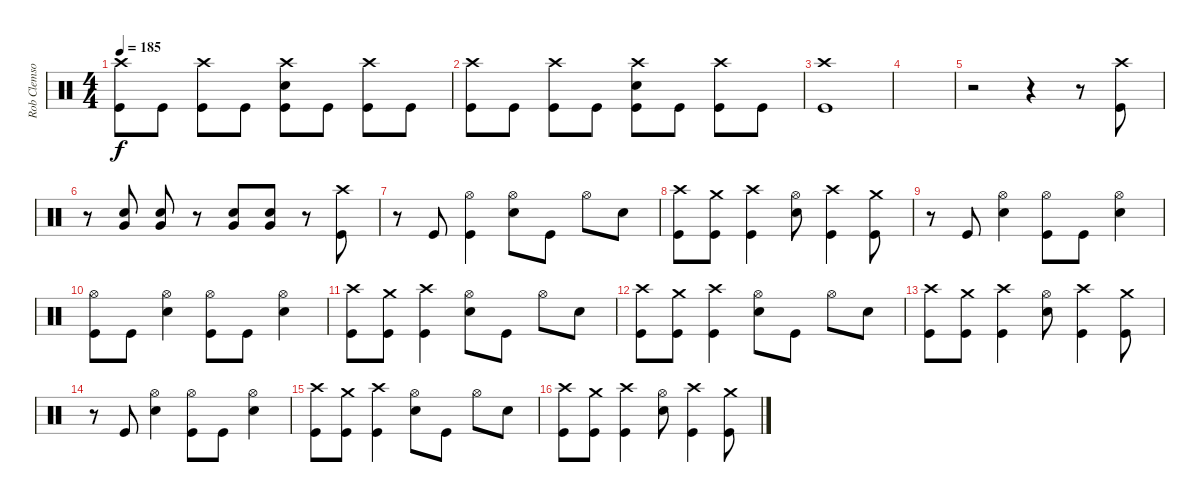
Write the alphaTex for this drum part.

\track ("Rob Clemson (Drums)" "Rob Clemso") {instrument percussion}
\staff {score}
\articulation defaults
\ts (4 4)
\tempo 185
\clef neutral
\ks c
("Crash high (hit)" "Kick (hit)").8{dy f} "Kick (hit)".8 ("Crash high (hit)" "Kick (hit)").8 "Kick (hit)".8 ("Crash high (hit)" "Kick (hit)" "Electric Snare (hit)").8 "Kick (hit)".8 ("Crash high (hit)" "Kick (hit)").8 "Kick (hit)".8 |
("Crash high (hit)" "Kick (hit)").8 "Kick (hit)".8 ("Crash high (hit)" "Kick (hit)").8 "Kick (hit)".8 ("Crash high (hit)" "Kick (hit)" "Electric Snare (hit)").8 "Kick (hit)".8 ("Crash high (hit)" "Kick (hit)").8 "Kick (hit)".8 |
("Kick (hit)" "Crash high (hit)").1 |
|
r.2 r.4 r.8 ("Kick (hit)" "Crash high (hit)").8 |
r.8 ("Very Low Tom (hit)" "Electric Snare (hit)").8 ("Very Low Tom (hit)" "Electric Snare (hit)").8 r.8 ("Very Low Tom (hit)" "Electric Snare (hit)").8 ("Very Low Tom (hit)" "Electric Snare (hit)").8 r.8 ("Kick (hit)" "Crash high (hit)").8 |
r.8 "Kick (hit)".8 ("Hi-Hat (open)" "Kick (hit)").4 ("Electric Snare (hit)" "Hi-Hat (open)").8 "Kick (hit)".8 "Hi-Hat (open)".8 "Electric Snare (hit)".8 |
("Kick (hit)" "Crash high (hit)").8 ("Crash medium (hit)" "Kick (hit)").8 ("Crash high (hit)" "Kick (hit)").4 ("Electric Snare (hit)" "Hi-Hat (open)").8 ("Kick (hit)" "Crash high (hit)").4 ("Kick (hit)" "Crash medium (hit)").8 |
r.8 "Kick (hit)".8 ("Electric Snare (hit)" "Hi-Hat (open)").4 ("Hi-Hat (open)" "Kick (hit)").8 "Kick (hit)".8 ("Hi-Hat (open)" "Electric Snare (hit)").4 |
("Hi-Hat (open)" "Kick (hit)").8 "Kick (hit)".8 ("Hi-Hat (open)" "Electric Snare (hit)").4 ("Hi-Hat (open)" "Kick (hit)").8 "Kick (hit)".8 ("Hi-Hat (open)" "Electric Snare (hit)").4 |
("Kick (hit)" "Crash high (hit)").8 ("Crash medium (hit)" "Kick (hit)").8 ("Crash high (hit)" "Kick (hit)").4 ("Electric Snare (hit)" "Hi-Hat (open)").8 "Kick (hit)".8 "Hi-Hat (open)".8 "Electric Snare (hit)".8 |
("Kick (hit)" "Crash high (hit)").8 ("Crash medium (hit)" "Kick (hit)").8 ("Crash high (hit)" "Kick (hit)").4 ("Electric Snare (hit)" "Hi-Hat (open)").8 "Kick (hit)".8 "Hi-Hat (open)".8 "Electric Snare (hit)".8 |
("Kick (hit)" "Crash high (hit)").8 ("Crash medium (hit)" "Kick (hit)").8 ("Crash high (hit)" "Kick (hit)").4 ("Electric Snare (hit)" "Hi-Hat (open)").8 ("Kick (hit)" "Crash high (hit)").4 ("Kick (hit)" "Crash medium (hit)").8 |
r.8 "Kick (hit)".8 ("Electric Snare (hit)" "Hi-Hat (open)").4 ("Hi-Hat (open)" "Kick (hit)").8 "Kick (hit)".8 ("Hi-Hat (open)" "Electric Snare (hit)").4 |
("Kick (hit)" "Crash high (hit)").8 ("Crash medium (hit)" "Kick (hit)").8 ("Crash high (hit)" "Kick (hit)").4 ("Electric Snare (hit)" "Hi-Hat (open)").8 "Kick (hit)".8 "Hi-Hat (open)".8 "Electric Snare (hit)".8 |
("Kick (hit)" "Crash high (hit)").8 ("Crash medium (hit)" "Kick (hit)").8 ("Crash high (hit)" "Kick (hit)").4 ("Electric Snare (hit)" "Hi-Hat (open)").8 ("Kick (hit)" "Crash high (hit)").4 ("Kick (hit)" "Crash medium (hit)").8
